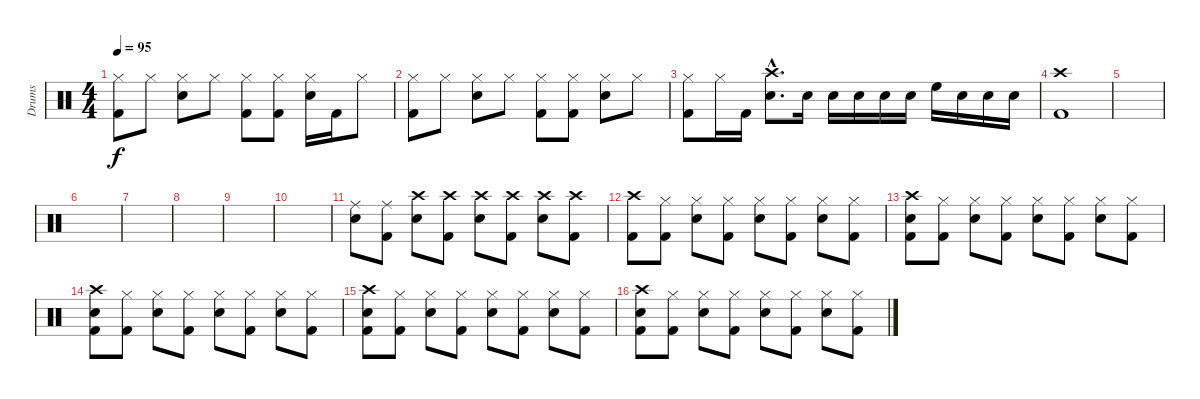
\track ("Drums" "Drums") {instrument percussion}
\staff {score}
\articulation defaults
\ts (4 4)
\tempo 95
\clef neutral
\ks c
("Kick (hit) 2" "Hi-Hat (closed)").8{dy f} "Hi-Hat (closed)".8 ("Snare (hit) 2" "Hi-Hat (closed)").8 "Hi-Hat (closed)".8 ("Kick (hit) 2" "Hi-Hat (closed)").8 ("Kick (hit) 2" "Hi-Hat (closed)").8 ("Snare (hit) 2" "Hi-Hat (closed)").16 "Kick (hit) 2".16 "Hi-Hat (closed)".8 |
("Hi-Hat (closed)" "Kick (hit) 2").8 "Hi-Hat (closed)".8 ("Hi-Hat (closed)" "Snare (hit) 2").8 "Hi-Hat (closed)".8 ("Hi-Hat (closed)" "Kick (hit) 2").8 ("Hi-Hat (closed)" "Kick (hit) 2").8 ("Hi-Hat (closed)" "Snare (hit) 2").8 "Hi-Hat (closed)".8 |
("Kick (hit) 2" "Hi-Hat (closed)").8 "Hi-Hat (closed)".16 "Kick (hit) 2".16 ("Snare (hit) 2"{hac} "Crash high (hit)"{hac}).8{d} "Snare (hit) 2".16 "Snare (hit) 2".16 "Snare (hit) 2".16 "Snare (hit) 2".16 "Snare (hit) 2".16 "High Floor Tom (hit)".16 "Snare (hit) 2".16 "Snare (hit) 2".16 "Snare (hit) 2".16 |
("Crash high (hit)" "Kick (hit) 2").1 |
|
|
|
|
|
|
("Snare (hit) 2" "Ride (middle)").8 ("Kick (hit) 2" "Ride (middle)").8 ("Snare (hit) 2" "Crash high (hit)").8 ("Kick (hit) 2" "Crash high (hit)").8 ("Snare (hit) 2" "Crash high (hit)").8 ("Kick (hit) 2" "Crash high (hit)").8 ("Snare (hit) 2" "Crash high (hit)").8 ("Kick (hit) 2" "Crash high (hit)").8 |
("Crash high (hit)" "Kick (hit) 2").8 ("Kick (hit) 2" "Hi-Hat (closed)").8 ("Snare (hit) 2" "Hi-Hat (closed)").8 ("Kick (hit) 2" "Hi-Hat (closed)").8 ("Snare (hit) 2" "Hi-Hat (closed)").8 ("Kick (hit) 2" "Hi-Hat (closed)").8 ("Snare (hit) 2" "Hi-Hat (closed)").8 ("Kick (hit) 2" "Hi-Hat (closed)").8 |
("Crash high (hit)" "Snare (hit) 2" "Kick (hit) 2").8 ("Kick (hit) 2" "Hi-Hat (closed)").8 ("Snare (hit) 2" "Hi-Hat (closed)").8 ("Kick (hit) 2" "Hi-Hat (closed)").8 ("Snare (hit) 2" "Hi-Hat (closed)").8 ("Kick (hit) 2" "Hi-Hat (closed)").8 ("Snare (hit) 2" "Hi-Hat (closed)").8 ("Kick (hit) 2" "Hi-Hat (closed)").8 |
("Crash high (hit)" "Snare (hit) 2" "Kick (hit) 2").8 ("Kick (hit) 2" "Hi-Hat (closed)").8 ("Snare (hit) 2" "Hi-Hat (closed)").8 ("Kick (hit) 2" "Hi-Hat (closed)").8 ("Snare (hit) 2" "Hi-Hat (closed)").8 ("Kick (hit) 2" "Hi-Hat (closed)").8 ("Snare (hit) 2" "Hi-Hat (closed)").8 ("Kick (hit) 2" "Hi-Hat (closed)").8 |
("Crash high (hit)" "Snare (hit) 2" "Kick (hit) 2").8 ("Kick (hit) 2" "Hi-Hat (closed)").8 ("Snare (hit) 2" "Hi-Hat (closed)").8 ("Kick (hit) 2" "Hi-Hat (closed)").8 ("Snare (hit) 2" "Hi-Hat (closed)").8 ("Kick (hit) 2" "Hi-Hat (closed)").8 ("Snare (hit) 2" "Hi-Hat (closed)").8 ("Kick (hit) 2" "Hi-Hat (closed)").8 |
("Crash high (hit)" "Snare (hit) 2" "Kick (hit) 2").8 ("Kick (hit) 2" "Hi-Hat (closed)").8 ("Snare (hit) 2" "Hi-Hat (closed)").8 ("Kick (hit) 2" "Hi-Hat (closed)").8 ("Snare (hit) 2" "Hi-Hat (closed)").8 ("Kick (hit) 2" "Hi-Hat (closed)").8 ("Snare (hit) 2" "Hi-Hat (closed)").8 ("Kick (hit) 2" "Hi-Hat (closed)").8
